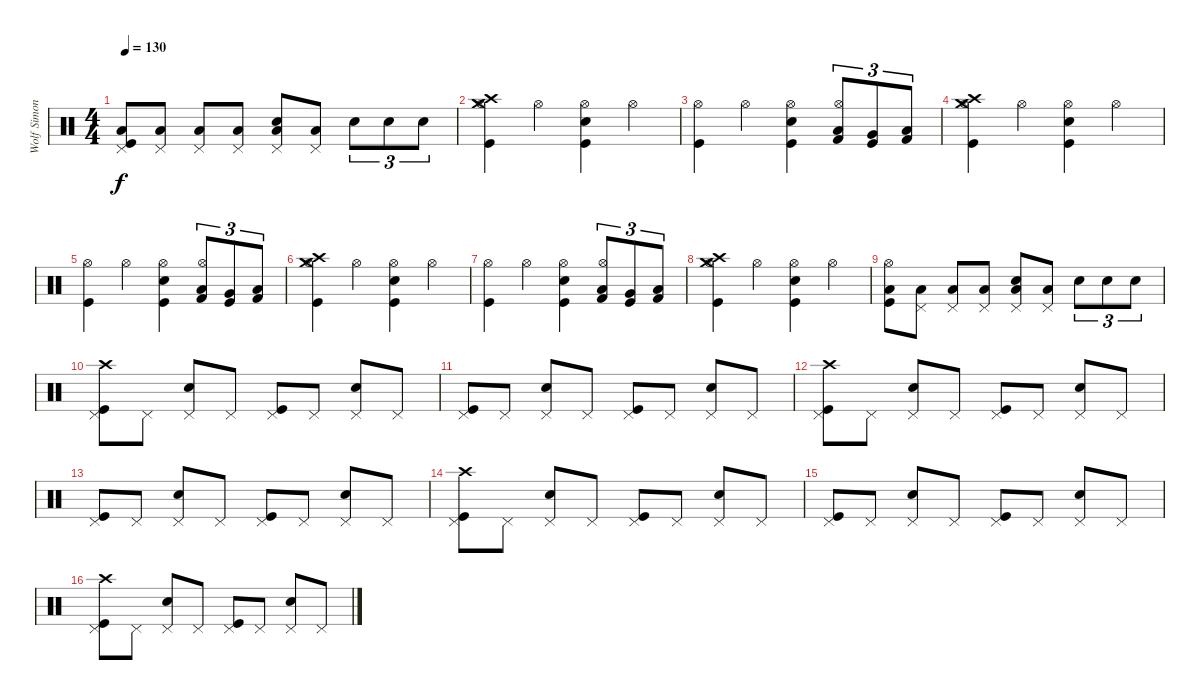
\track ("Wolf Simon" "Wolf Simon") {instrument percussion}
\staff {score}
\articulation defaults
\ts (4 4)
\tempo 130
\clef neutral
\ks c
("Pedal Hi-Hat (hit)" "Low Tom (hit)" "Kick (hit)").8{dy f} ("Pedal Hi-Hat (hit)" "Low Tom (hit)").8 ("Pedal Hi-Hat (hit)" "Low Tom (hit)").8 ("Pedal Hi-Hat (hit)" "Low Tom (hit)").8 ("Pedal Hi-Hat (hit)" "Electric Snare (hit)" "Low Tom (hit)").8 ("Pedal Hi-Hat (hit)" "Low Tom (hit)").8 "Electric Snare (hit)".8{tu (3 2)} "Electric Snare (hit)".8{tu (3 2)} "Electric Snare (hit)".8{tu (3 2)} |
("Crash high (hit)" "Crash medium (hit)" "Hi-Hat (open)" "Kick (hit)").4 "Hi-Hat (open)".4 ("Hi-Hat (open)" "Electric Snare (hit)" "Kick (hit)").4 "Hi-Hat (open)".4 |
("Hi-Hat (open)" "Kick (hit)").4 "Hi-Hat (open)".4 ("Hi-Hat (open)" "Electric Snare (hit)" "Kick (hit)").4 ("Hi-Hat (open)" "Low Tom (hit)" "Kick (hit) 2").8{tu (3 2)} ("Very Low Tom (hit)" "Kick (hit)").8{tu (3 2)} ("Low Floor Tom (hit)" "Kick (hit) 2").8{tu (3 2)} |
("Crash high (hit)" "Crash medium (hit)" "Hi-Hat (open)" "Kick (hit)").4 "Hi-Hat (open)".4 ("Hi-Hat (open)" "Electric Snare (hit)" "Kick (hit)").4 "Hi-Hat (open)".4 |
("Hi-Hat (open)" "Kick (hit)").4 "Hi-Hat (open)".4 ("Hi-Hat (open)" "Electric Snare (hit)" "Kick (hit)").4 ("Hi-Hat (open)" "Low Tom (hit)" "Kick (hit) 2").8{tu (3 2)} ("Very Low Tom (hit)" "Kick (hit)").8{tu (3 2)} ("Low Floor Tom (hit)" "Kick (hit) 2").8{tu (3 2)} |
("Crash high (hit)" "Crash medium (hit)" "Hi-Hat (open)" "Kick (hit)").4 "Hi-Hat (open)".4 ("Hi-Hat (open)" "Electric Snare (hit)" "Kick (hit)").4 "Hi-Hat (open)".4 |
("Hi-Hat (open)" "Kick (hit)").4 "Hi-Hat (open)".4 ("Hi-Hat (open)" "Electric Snare (hit)" "Kick (hit)").4 ("Hi-Hat (open)" "Low Tom (hit)" "Kick (hit) 2").8{tu (3 2)} ("Very Low Tom (hit)" "Kick (hit)").8{tu (3 2)} ("Low Floor Tom (hit)" "Kick (hit) 2").8{tu (3 2)} |
("Crash high (hit)" "Crash medium (hit)" "Hi-Hat (open)" "Kick (hit)").4 "Hi-Hat (open)".4 ("Hi-Hat (open)" "Electric Snare (hit)" "Kick (hit)").4 "Hi-Hat (open)".4 |
("Hi-Hat (open)" "Low Tom (hit)" "Kick (hit)").8 ("Pedal Hi-Hat (hit)" "Low Tom (hit)").8 ("Pedal Hi-Hat (hit)" "Low Tom (hit)").8 ("Pedal Hi-Hat (hit)" "Low Tom (hit)").8 ("Pedal Hi-Hat (hit)" "Electric Snare (hit)" "Low Tom (hit)").8 ("Pedal Hi-Hat (hit)" "Low Tom (hit)").8 "Electric Snare (hit)".8{tu (3 2)} "Electric Snare (hit)".8{tu (3 2)} "Electric Snare (hit)".8{tu (3 2)} |
("Crash high (hit)" "Pedal Hi-Hat (hit)" "Kick (hit)").8 "Pedal Hi-Hat (hit)".8 ("Pedal Hi-Hat (hit)" "Electric Snare (hit)").8 "Pedal Hi-Hat (hit)".8 ("Pedal Hi-Hat (hit)" "Kick (hit)").8 "Pedal Hi-Hat (hit)".8 ("Pedal Hi-Hat (hit)" "Electric Snare (hit)").8 "Pedal Hi-Hat (hit)".8 |
("Pedal Hi-Hat (hit)" "Kick (hit)").8 "Pedal Hi-Hat (hit)".8 ("Pedal Hi-Hat (hit)" "Electric Snare (hit)").8 "Pedal Hi-Hat (hit)".8 ("Pedal Hi-Hat (hit)" "Kick (hit)").8 "Pedal Hi-Hat (hit)".8 ("Pedal Hi-Hat (hit)" "Electric Snare (hit)").8 "Pedal Hi-Hat (hit)".8 |
("Crash high (hit)" "Pedal Hi-Hat (hit)" "Kick (hit)").8 "Pedal Hi-Hat (hit)".8 ("Pedal Hi-Hat (hit)" "Electric Snare (hit)").8 "Pedal Hi-Hat (hit)".8 ("Pedal Hi-Hat (hit)" "Kick (hit)").8 "Pedal Hi-Hat (hit)".8 ("Pedal Hi-Hat (hit)" "Electric Snare (hit)").8 "Pedal Hi-Hat (hit)".8 |
("Pedal Hi-Hat (hit)" "Kick (hit)").8 "Pedal Hi-Hat (hit)".8 ("Pedal Hi-Hat (hit)" "Electric Snare (hit)").8 "Pedal Hi-Hat (hit)".8 ("Pedal Hi-Hat (hit)" "Kick (hit)").8 "Pedal Hi-Hat (hit)".8 ("Pedal Hi-Hat (hit)" "Electric Snare (hit)").8 "Pedal Hi-Hat (hit)".8 |
("Crash high (hit)" "Pedal Hi-Hat (hit)" "Kick (hit)").8 "Pedal Hi-Hat (hit)".8 ("Pedal Hi-Hat (hit)" "Electric Snare (hit)").8 "Pedal Hi-Hat (hit)".8 ("Pedal Hi-Hat (hit)" "Kick (hit)").8 "Pedal Hi-Hat (hit)".8 ("Pedal Hi-Hat (hit)" "Electric Snare (hit)").8 "Pedal Hi-Hat (hit)".8 |
("Pedal Hi-Hat (hit)" "Kick (hit)").8 "Pedal Hi-Hat (hit)".8 ("Pedal Hi-Hat (hit)" "Electric Snare (hit)").8 "Pedal Hi-Hat (hit)".8 ("Pedal Hi-Hat (hit)" "Kick (hit)").8 "Pedal Hi-Hat (hit)".8 ("Pedal Hi-Hat (hit)" "Electric Snare (hit)").8 "Pedal Hi-Hat (hit)".8 |
("Crash high (hit)" "Pedal Hi-Hat (hit)" "Kick (hit)").8 "Pedal Hi-Hat (hit)".8 ("Pedal Hi-Hat (hit)" "Electric Snare (hit)").8 "Pedal Hi-Hat (hit)".8 ("Pedal Hi-Hat (hit)" "Kick (hit)").8 "Pedal Hi-Hat (hit)".8 ("Pedal Hi-Hat (hit)" "Electric Snare (hit)").8 "Pedal Hi-Hat (hit)".8
